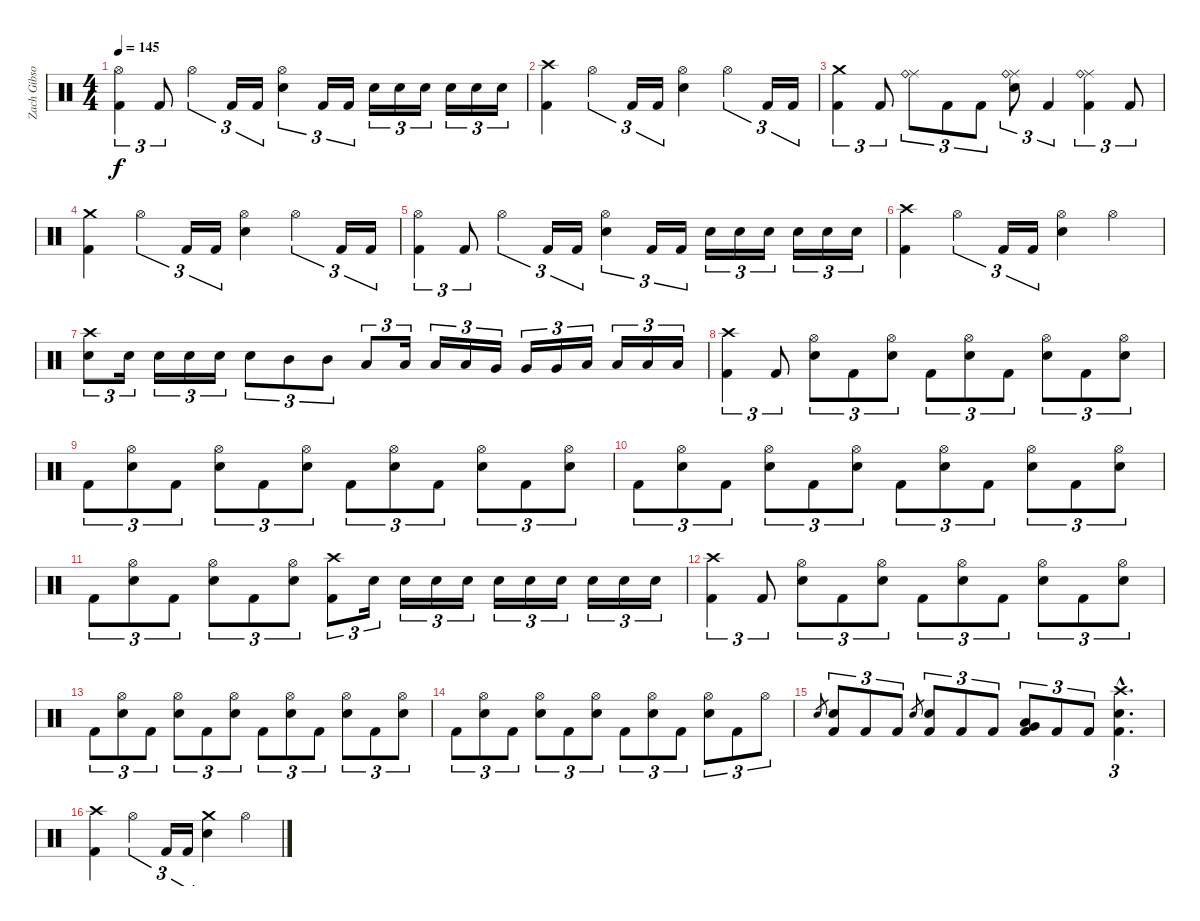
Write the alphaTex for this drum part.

\track ("Zach Gibson (Drums)" "Zach Gibso") {instrument percussion}
\staff {score}
\articulation defaults
\ts (4 4)
\tempo 145
\clef neutral
\ks c
("Hi-Hat (open)" "Kick (hit) 2").4{tu (3 2) dy f} "Kick (hit) 2".8{tu (3 2)} "Hi-Hat (open)".4{tu (3 2)} "Kick (hit) 2".16{tu (3 2)} "Kick (hit) 2".16{tu (3 2)} ("Hi-Hat (open)" "Snare (hit) 2").4{tu (3 2)} "Kick (hit) 2".16{tu (3 2)} "Kick (hit) 2".16{tu (3 2)} "Snare (hit) 2".16{tu (3 2)} "Snare (hit) 2".16{tu (3 2)} "Snare (hit) 2".16{tu (3 2)} "Snare (hit) 2".16{tu (3 2)} "Snare (hit) 2".16{tu (3 2)} "Snare (hit) 2".16{tu (3 2)} |
("Crash high (hit)" "Kick (hit) 2").4 "Hi-Hat (open)".4{tu (3 2)} "Kick (hit) 2".16{tu (3 2)} "Kick (hit) 2".16{tu (3 2)} ("Hi-Hat (open)" "Snare (hit) 2").4 "Hi-Hat (open)".4{tu (3 2)} "Kick (hit) 2".16{tu (3 2)} "Kick (hit) 2".16{tu (3 2)} |
("Crash medium (hit)" "Kick (hit) 2").4{tu (3 2)} "Kick (hit) 2".8{tu (3 2)} ("Ride (middle)" "Ride (bell)").8{tu (3 2)} "Kick (hit) 2".8{tu (3 2)} "Kick (hit) 2".8{tu (3 2)} ("Ride (middle)" "Ride (bell)" "Snare (hit) 2").8{tu (3 2)} "Kick (hit) 2".4{tu (3 2)} ("Ride (middle)" "Ride (bell)" "Kick (hit) 2").4{tu (3 2)} "Kick (hit) 2".8{tu (3 2)} |
("Crash medium (hit)" "Kick (hit) 2").4 "Hi-Hat (open)".4{tu (3 2)} "Kick (hit) 2".16{tu (3 2)} "Kick (hit) 2".16{tu (3 2)} ("Hi-Hat (open)" "Snare (hit) 2").4 "Hi-Hat (open)".4{tu (3 2)} "Kick (hit) 2".16{tu (3 2)} "Kick (hit) 2".16{tu (3 2)} |
("Hi-Hat (open)" "Kick (hit) 2").4{tu (3 2)} "Kick (hit) 2".8{tu (3 2)} "Hi-Hat (open)".4{tu (3 2)} "Kick (hit) 2".16{tu (3 2)} "Kick (hit) 2".16{tu (3 2)} ("Hi-Hat (open)" "Snare (hit) 2").4{tu (3 2)} "Kick (hit) 2".16{tu (3 2)} "Kick (hit) 2".16{tu (3 2)} "Snare (hit) 2".16{tu (3 2)} "Snare (hit) 2".16{tu (3 2)} "Snare (hit) 2".16{tu (3 2)} "Snare (hit) 2".16{tu (3 2)} "Snare (hit) 2".16{tu (3 2)} "Snare (hit) 2".16{tu (3 2)} |
("Crash high (hit)" "Kick (hit) 2").4 "Hi-Hat (open)".4{tu (3 2)} "Kick (hit) 2".16{tu (3 2)} "Kick (hit) 2".16{tu (3 2)} ("Hi-Hat (open)" "Snare (hit) 2").4 "Hi-Hat (open)".4 |
("Crash high (hit)" "Snare (hit) 2").8{tu (3 2)} "Snare (hit) 2".16{tu (3 2)} "Snare (hit) 2".16{tu (3 2)} "Snare (hit) 2".16{tu (3 2)} "Snare (hit) 2".16{tu (3 2)} "Snare (hit) 2".8{tu (3 2)} "Mid Tom (hit)".8{tu (3 2)} "Mid Tom (hit)".8{tu (3 2)} "Low Tom (hit)".8{tu (3 2)} "Low Tom (hit)".16{tu (3 2)} "Low Tom (hit)".16{tu (3 2)} "Low Tom (hit)".16{tu (3 2)} "Very Low Tom (hit)".16{tu (3 2)} "Very Low Tom (hit)".16{tu (3 2)} "Very Low Tom (hit)".16{tu (3 2)} "Low Floor Tom (hit)".16{tu (3 2)} "Low Floor Tom (hit)".16{tu (3 2)} "Low Floor Tom (hit)".16{tu (3 2)} "Low Floor Tom (hit)".16{tu (3 2)} |
("Crash high (hit)" "Kick (hit) 2").4{tu (3 2)} "Kick (hit) 2".8{tu (3 2)} ("Hi-Hat (open)" "Snare (hit) 2").8{tu (3 2)} "Kick (hit) 2".8{tu (3 2)} ("Hi-Hat (open)" "Snare (hit) 2").8{tu (3 2)} "Kick (hit) 2".8{tu (3 2)} ("Hi-Hat (open)" "Snare (hit) 2").8{tu (3 2)} "Kick (hit) 2".8{tu (3 2)} ("Hi-Hat (open)" "Snare (hit) 2").8{tu (3 2)} "Kick (hit) 2".8{tu (3 2)} ("Hi-Hat (open)" "Snare (hit) 2").8{tu (3 2)} |
"Kick (hit) 2".8{tu (3 2)} ("Hi-Hat (open)" "Snare (hit) 2").8{tu (3 2)} "Kick (hit) 2".8{tu (3 2)} ("Hi-Hat (open)" "Snare (hit) 2").8{tu (3 2)} "Kick (hit) 2".8{tu (3 2)} ("Hi-Hat (open)" "Snare (hit) 2").8{tu (3 2)} "Kick (hit) 2".8{tu (3 2)} ("Hi-Hat (open)" "Snare (hit) 2").8{tu (3 2)} "Kick (hit) 2".8{tu (3 2)} ("Hi-Hat (open)" "Snare (hit) 2").8{tu (3 2)} "Kick (hit) 2".8{tu (3 2)} ("Hi-Hat (open)" "Snare (hit) 2").8{tu (3 2)} |
"Kick (hit) 2".8{tu (3 2)} ("Hi-Hat (open)" "Snare (hit) 2").8{tu (3 2)} "Kick (hit) 2".8{tu (3 2)} ("Hi-Hat (open)" "Snare (hit) 2").8{tu (3 2)} "Kick (hit) 2".8{tu (3 2)} ("Hi-Hat (open)" "Snare (hit) 2").8{tu (3 2)} "Kick (hit) 2".8{tu (3 2)} ("Hi-Hat (open)" "Snare (hit) 2").8{tu (3 2)} "Kick (hit) 2".8{tu (3 2)} ("Hi-Hat (open)" "Snare (hit) 2").8{tu (3 2)} "Kick (hit) 2".8{tu (3 2)} ("Hi-Hat (open)" "Snare (hit) 2").8{tu (3 2)} |
"Kick (hit) 2".8{tu (3 2)} ("Hi-Hat (open)" "Snare (hit) 2").8{tu (3 2)} "Kick (hit) 2".8{tu (3 2)} ("Hi-Hat (open)" "Snare (hit) 2").8{tu (3 2)} "Kick (hit) 2".8{tu (3 2)} ("Hi-Hat (open)" "Snare (hit) 2").8{tu (3 2)} ("Crash high (hit)" "Kick (hit) 2").8{tu (3 2)} "Snare (hit) 2".16{tu (3 2)} "Snare (hit) 2".16{tu (3 2)} "Snare (hit) 2".16{tu (3 2)} "Snare (hit) 2".16{tu (3 2)} "Snare (hit) 2".16{tu (3 2)} "Snare (hit) 2".16{tu (3 2)} "Snare (hit) 2".16{tu (3 2)} "Snare (hit) 2".16{tu (3 2)} "Snare (hit) 2".16{tu (3 2)} "Snare (hit) 2".16{tu (3 2)} |
("Crash high (hit)" "Kick (hit) 2").4{tu (3 2)} "Kick (hit) 2".8{tu (3 2)} ("Hi-Hat (open)" "Snare (hit) 2").8{tu (3 2)} "Kick (hit) 2".8{tu (3 2)} ("Hi-Hat (open)" "Snare (hit) 2").8{tu (3 2)} "Kick (hit) 2".8{tu (3 2)} ("Hi-Hat (open)" "Snare (hit) 2").8{tu (3 2)} "Kick (hit) 2".8{tu (3 2)} ("Hi-Hat (open)" "Snare (hit) 2").8{tu (3 2)} "Kick (hit) 2".8{tu (3 2)} ("Hi-Hat (open)" "Snare (hit) 2").8{tu (3 2)} |
"Kick (hit) 2".8{tu (3 2)} ("Hi-Hat (open)" "Snare (hit) 2").8{tu (3 2)} "Kick (hit) 2".8{tu (3 2)} ("Hi-Hat (open)" "Snare (hit) 2").8{tu (3 2)} "Kick (hit) 2".8{tu (3 2)} ("Hi-Hat (open)" "Snare (hit) 2").8{tu (3 2)} "Kick (hit) 2".8{tu (3 2)} ("Hi-Hat (open)" "Snare (hit) 2").8{tu (3 2)} "Kick (hit) 2".8{tu (3 2)} ("Hi-Hat (open)" "Snare (hit) 2").8{tu (3 2)} "Kick (hit) 2".8{tu (3 2)} ("Hi-Hat (open)" "Snare (hit) 2").8{tu (3 2)} |
"Kick (hit) 2".8{tu (3 2)} ("Hi-Hat (open)" "Snare (hit) 2").8{tu (3 2)} "Kick (hit) 2".8{tu (3 2)} ("Hi-Hat (open)" "Snare (hit) 2").8{tu (3 2)} "Kick (hit) 2".8{tu (3 2)} ("Hi-Hat (open)" "Snare (hit) 2").8{tu (3 2)} "Kick (hit) 2".8{tu (3 2)} ("Hi-Hat (open)" "Snare (hit) 2").8{tu (3 2)} "Kick (hit) 2".8{tu (3 2)} ("Hi-Hat (open)" "Snare (hit) 2").8{tu (3 2)} "Kick (hit) 2".8{tu (3 2)} "Hi-Hat (open)".8{tu (3 2)} |
"Snare (hit) 2".8{gr} ("Snare (hit) 2" "Kick (hit) 2").8{tu (3 2)} "Kick (hit) 2".8{tu (3 2)} "Kick (hit) 2".8{tu (3 2)} "Snare (hit) 2".8{gr} ("Snare (hit) 2" "Kick (hit) 2").8{tu (3 2)} "Kick (hit) 2".8{tu (3 2)} "Kick (hit) 2".8{tu (3 2)} ("Low Tom (hit)" "Very Low Tom (hit)" "Kick (hit) 2").8{tu (3 2)} "Kick (hit) 2".8{tu (3 2)} "Kick (hit) 2".8{tu (3 2)} ("Crash high (hit)"{hac} "Snare (hit) 2"{hac} "Kick (hit) 2"{hac}).4{d tu (3 2)} |
("Crash high (hit)" "Kick (hit) 2").4 "Hi-Hat (open)".4{tu (3 2)} "Kick (hit) 2".16{tu (3 2)} "Kick (hit) 2".16{tu (3 2)} ("Crash medium (hit)" "Snare (hit) 2").4 "Hi-Hat (open)".4
